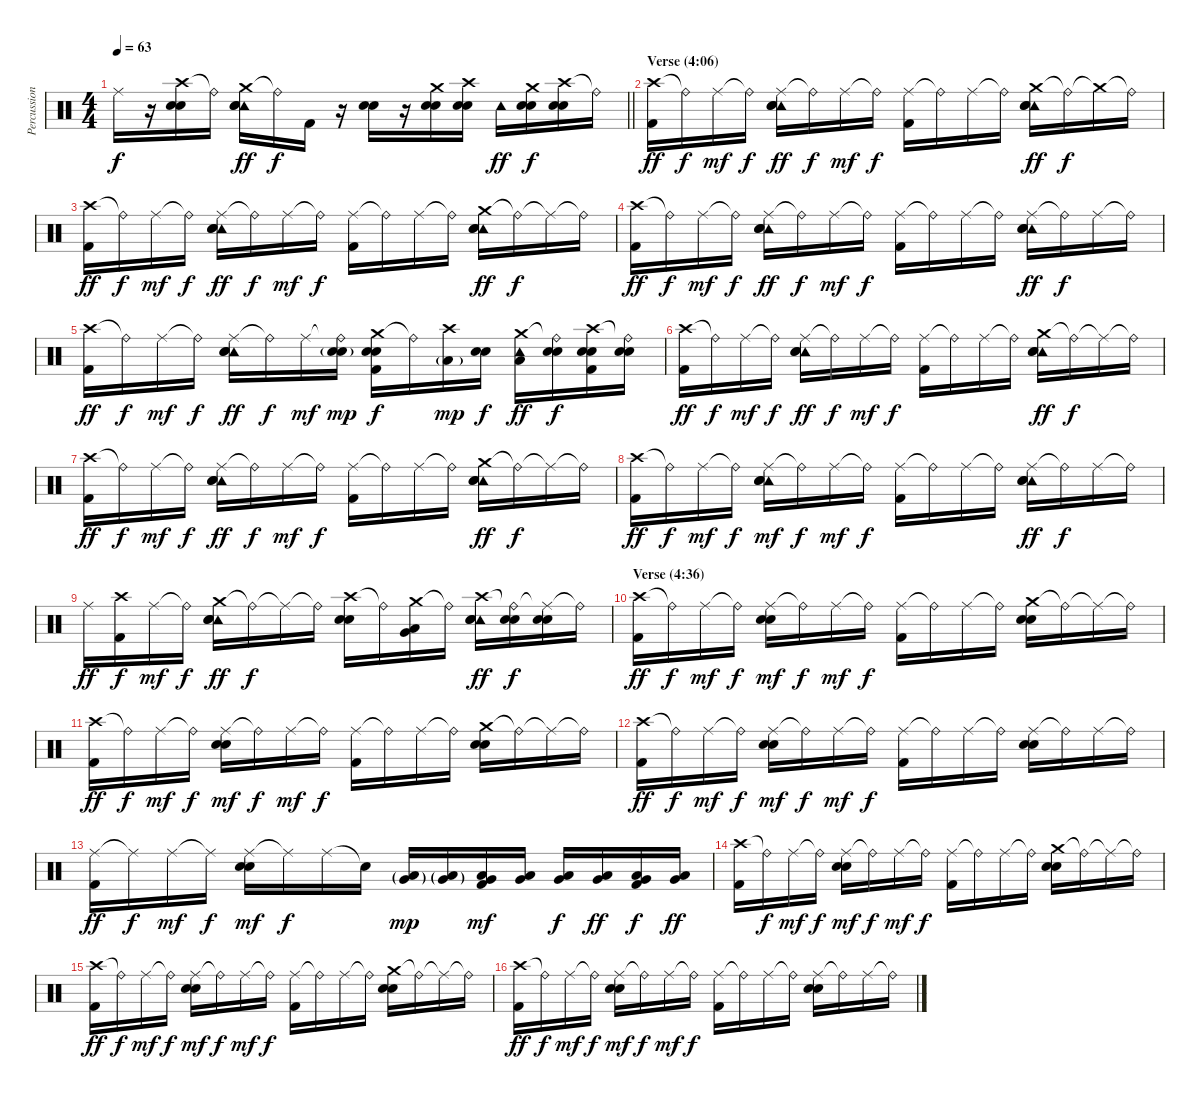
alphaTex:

\track ("Percussion" "Percussion") {instrument percussion}
\staff {score}
\articulation defaults
\ts (4 4)
\tempo 63
\clef neutral
\barLineRight lightlight
\ks c "Ride (middle)".16{dy f}
r.16 ("Crash high (hit)" "Snare (hit) 2" "Electric Snare (hit)").16 "Ride (bell)"{t}.16 ("Crash medium (hit)" "Tambourine (hit)" "Snare (hit) 2" "Electric Snare (hit)").16{dy ff} "Ride (bell)"{t}.16{dy f} "Kick (hit) 2".16 r.16 ("Snare (hit) 2" "Electric Snare (hit)").16 r.16 ("Crash medium (hit)" "Snare (hit) 2" "Electric Snare (hit)").16 ("Crash high (hit)" "Snare (hit) 2" "Electric Snare (hit)").16 "Tambourine (hit)".16{dy ff} ("Crash medium (hit)" "Snare (hit) 2" "Electric Snare (hit)").16{dy f} ("Crash high (hit)" "Snare (hit) 2" "Electric Snare (hit)").16 "Ride (bell)"{t}.16 |
\section ("" "Verse (4:06)")
("Crash high (hit)" "Kick (hit) 2").16{dy ff} "Ride (bell)"{t}.16{dy f} "Ride (middle)".16{dy mf} "Ride (bell)"{t}.16{dy f} ("Ride (middle)" "Tambourine (hit)" "Snare (hit) 2" "Electric Snare (hit)").16{dy ff} "Ride (bell)"{t}.16{dy f} "Ride (middle)".16{dy mf} "Ride (bell)"{t}.16{dy f} ("Ride (middle)" "Kick (hit) 2").16 "Ride (bell)"{t}.16 "Ride (middle)".16 "Ride (bell)"{t}.16 ("Crash medium (hit)" "Tambourine (hit)" "Snare (hit) 2" "Electric Snare (hit)").16{dy ff} "Ride (bell)"{t}.16{dy f} "Crash medium (hit)"{t}.16 "Ride (bell)"{t}.16 |
("Crash high (hit)" "Kick (hit) 2").16{dy ff} "Ride (bell)"{t}.16{dy f} "Ride (middle)".16{dy mf} "Ride (bell)"{t}.16{dy f} ("Ride (middle)" "Tambourine (hit)" "Snare (hit) 2" "Electric Snare (hit)").16{dy ff} "Ride (bell)"{t}.16{dy f} "Ride (middle)".16{dy mf} "Ride (bell)"{t}.16{dy f} ("Ride (middle)" "Kick (hit) 2").16 "Ride (bell)"{t}.16 "Ride (middle)".16 "Ride (bell)"{t}.16 ("Crash medium (hit)" "Tambourine (hit)" "Snare (hit) 2" "Electric Snare (hit)").16{dy ff} "Ride (bell)"{t}.16{dy f} "Ride (middle)"{t}.16 "Ride (bell)"{t}.16 |
("Crash high (hit)" "Kick (hit) 2").16{dy ff} "Ride (bell)"{t}.16{dy f} "Ride (middle)".16{dy mf} "Ride (bell)"{t}.16{dy f} ("Ride (middle)" "Tambourine (hit)" "Snare (hit) 2" "Electric Snare (hit)").16{dy ff} "Ride (bell)"{t}.16{dy f} "Ride (middle)".16{dy mf} "Ride (bell)"{t}.16{dy f} ("Ride (middle)" "Kick (hit) 2").16 "Ride (bell)"{t}.16 "Ride (middle)".16 "Ride (bell)"{t}.16 ("Ride (middle)" "Tambourine (hit)" "Snare (hit) 2" "Electric Snare (hit)").16{dy ff} "Ride (bell)"{t}.16{dy f} "Ride (middle)".16 "Ride (bell)"{t}.16 |
("Crash high (hit)" "Kick (hit) 2").16{dy ff} "Ride (bell)"{t}.16{dy f} "Ride (middle)".16{dy mf} "Ride (bell)"{t}.16{dy f} ("Ride (middle)" "Tambourine (hit)" "Snare (hit) 2" "Electric Snare (hit)").16{dy ff} "Ride (bell)"{t}.16{dy f} "Ride (middle)".16{dy mf} ("Ride (bell)"{t} "Snare (hit) 2"{g} "Electric Snare (hit)"{g}).16{dy mp} ("Crash medium (hit)" "Snare (hit) 2" "Electric Snare (hit)" "Kick (hit) 2").16{dy f} "Ride (bell)"{t}.16 ("Crash high (hit)" "Low Tom (hit)"{g}).16{dy mp} ("Snare (hit) 2" "Electric Snare (hit)").16{dy f} ("Crash medium (hit)" "Low Tom (hit)" "Tambourine (hit)").16{dy ff} ("Ride (bell)"{t} "Snare (hit) 2" "Electric Snare (hit)").16{dy f} ("Crash high (hit)" "Snare (hit) 2" "Electric Snare (hit)" "Kick (hit) 2").16 ("Ride (bell)"{t} "Snare (hit) 2" "Electric Snare (hit)").16 |
("Crash high (hit)" "Kick (hit) 2").16{dy ff} "Ride (bell)"{t}.16{dy f} "Ride (middle)".16{dy mf} "Ride (bell)"{t}.16{dy f} ("Ride (middle)" "Tambourine (hit)" "Snare (hit) 2" "Electric Snare (hit)").16{dy ff} "Ride (bell)"{t}.16{dy f} "Ride (middle)".16{dy mf} "Ride (bell)"{t}.16{dy f} ("Ride (middle)" "Kick (hit) 2").16 "Ride (bell)"{t}.16 "Ride (middle)".16 "Ride (bell)"{t}.16 ("Crash medium (hit)" "Tambourine (hit)" "Snare (hit) 2" "Electric Snare (hit)").16{dy ff} "Ride (bell)"{t}.16{dy f} "Ride (middle)"{t}.16 "Ride (bell)"{t}.16 |
("Crash high (hit)" "Kick (hit) 2").16{dy ff} "Ride (bell)"{t}.16{dy f} "Ride (middle)".16{dy mf} "Ride (bell)"{t}.16{dy f} ("Ride (middle)" "Tambourine (hit)" "Snare (hit) 2" "Electric Snare (hit)").16{dy ff} "Ride (bell)"{t}.16{dy f} "Ride (middle)".16{dy mf} "Ride (bell)"{t}.16{dy f} ("Ride (middle)" "Kick (hit) 2").16 "Ride (bell)"{t}.16 "Ride (middle)".16 "Ride (bell)"{t}.16 ("Crash medium (hit)" "Tambourine (hit)" "Snare (hit) 2" "Electric Snare (hit)").16{dy ff} "Ride (bell)"{t}.16{dy f} "Ride (middle)"{t}.16 "Ride (bell)"{t}.16 |
("Crash high (hit)" "Kick (hit) 2").16{dy ff} "Ride (bell)"{t}.16{dy f} "Ride (middle)".16{dy mf} "Ride (bell)"{t}.16{dy f} ("Ride (middle)" "Tambourine (hit)" "Snare (hit) 2" "Electric Snare (hit)").16{dy mf} "Ride (bell)"{t}.16{dy f} "Ride (middle)".16{dy mf} "Ride (bell)"{t}.16{dy f} ("Ride (middle)" "Kick (hit) 2").16 "Ride (bell)"{t}.16 "Ride (middle)".16 "Ride (bell)"{t}.16 ("Ride (middle)" "Tambourine (hit)" "Snare (hit) 2" "Electric Snare (hit)").16{dy ff} "Ride (bell)"{t}.16{dy f} "Ride (middle)".16 "Ride (bell)"{t}.16 |
"Ride (middle)".16{dy ff} ("Crash high (hit)" "Kick (hit) 2").16{dy f} "Ride (middle)".16{dy mf} "Ride (bell)"{t}.16{dy f} ("Crash medium (hit)" "Tambourine (hit)" "Snare (hit) 2" "Electric Snare (hit)").16{dy ff} "Ride (bell)"{t}.16{dy f} "Ride (middle)"{t}.16 "Ride (bell)"{t}.16 ("Crash high (hit)" "Snare (hit) 2" "Electric Snare (hit)").16 "Ride (bell)"{t}.16 ("Crash medium (hit)" "Very Low Tom (hit)" "Low Floor Tom (hit)").16 "Ride (bell)"{t}.16 ("Crash high (hit)" "Tambourine (hit)" "Snare (hit) 2" "Electric Snare (hit)").16{dy ff} ("Ride (bell)"{t} "Snare (hit) 2" "Electric Snare (hit)").16{dy f} ("Ride (middle)"{t} "Snare (hit) 2" "Electric Snare (hit)").16 "Ride (bell)"{t}.16 |
\section ("" "Verse (4:36)")
("Crash high (hit)" "Kick (hit) 2").16{dy ff} "Ride (bell)"{t}.16{dy f} "Ride (middle)".16{dy mf} "Ride (bell)"{t}.16{dy f} ("Ride (middle)" "Snare (hit) 2" "Electric Snare (hit)").16{dy mf} "Ride (bell)"{t}.16{dy f} "Ride (middle)".16{dy mf} "Ride (bell)"{t}.16{dy f} ("Ride (middle)" "Kick (hit) 2").16 "Ride (bell)"{t}.16 "Ride (middle)".16 "Ride (bell)"{t}.16 ("Crash medium (hit)" "Snare (hit) 2" "Electric Snare (hit)").16 "Ride (bell)"{t}.16 "Ride (middle)"{t}.16 "Ride (bell)"{t}.16 |
("Crash high (hit)" "Kick (hit) 2").16{dy ff} "Ride (bell)"{t}.16{dy f} "Ride (middle)".16{dy mf} "Ride (bell)"{t}.16{dy f} ("Ride (middle)" "Snare (hit) 2" "Electric Snare (hit)").16{dy mf} "Ride (bell)"{t}.16{dy f} "Ride (middle)".16{dy mf} "Ride (bell)"{t}.16{dy f} ("Ride (middle)" "Kick (hit) 2").16 "Ride (bell)"{t}.16 "Ride (middle)".16 "Ride (bell)"{t}.16 ("Crash medium (hit)" "Snare (hit) 2" "Electric Snare (hit)").16 "Ride (bell)"{t}.16 "Ride (middle)"{t}.16 "Ride (bell)"{t}.16 |
("Crash high (hit)" "Kick (hit) 2").16{dy ff} "Ride (bell)"{t}.16{dy f} "Ride (middle)".16{dy mf} "Ride (bell)"{t}.16{dy f} ("Ride (middle)" "Snare (hit) 2" "Electric Snare (hit)").16{dy mf} "Ride (bell)"{t}.16{dy f} "Ride (middle)".16{dy mf} "Ride (bell)"{t}.16{dy f} ("Ride (middle)" "Kick (hit) 2").16 "Ride (bell)"{t}.16 "Ride (middle)".16 "Ride (bell)"{t}.16 ("Ride (middle)" "Snare (hit) 2" "Electric Snare (hit)").16 "Ride (bell)"{t}.16 "Ride (middle)".16 "Ride (bell)"{t}.16 |
("Ride (middle)" "Kick (hit) 2").16{dy ff} "Ride (middle)"{t}.16{dy f} "Ride (middle)".16{dy mf} "Ride (middle)"{t}.16{dy f} ("Ride (middle)" "Snare (hit) 2" "Electric Snare (hit)").16{dy mf} "Ride (middle)"{t}.16{dy f} "Ride (middle)".16 "Snare (hit)"{t}.16 ("Low Floor Tom (hit)"{g} "Very Low Tom (hit)"{g}).16{dy mp} ("Low Floor Tom (hit)"{g} "Very Low Tom (hit)"{g}).16 ("Low Floor Tom (hit)" "Very Low Tom (hit)" "Kick (hit) 2").16{dy mf} ("Low Floor Tom (hit)" "Very Low Tom (hit)").16 ("Low Floor Tom (hit)" "Very Low Tom (hit)").16{dy f} ("Low Floor Tom (hit)" "Very Low Tom (hit)").16{dy ff} ("Low Floor Tom (hit)" "Very Low Tom (hit)" "Kick (hit) 2").16{dy f} ("Low Floor Tom (hit)" "Very Low Tom (hit)").16{dy ff} |
("Crash high (hit)" "Kick (hit) 2").16 "Ride (bell)"{t}.16{dy f} "Ride (middle)".16{dy mf} "Ride (bell)"{t}.16{dy f} ("Ride (middle)" "Snare (hit) 2" "Electric Snare (hit)").16{dy mf} "Ride (bell)"{t}.16{dy f} "Ride (middle)".16{dy mf} "Ride (bell)"{t}.16{dy f} ("Ride (middle)" "Kick (hit) 2").16 "Ride (bell)"{t}.16 "Ride (middle)".16 "Ride (bell)"{t}.16 ("Crash medium (hit)" "Snare (hit) 2" "Electric Snare (hit)").16 "Ride (bell)"{t}.16 "Ride (middle)"{t}.16 "Ride (bell)"{t}.16 |
("Crash high (hit)" "Kick (hit) 2").16{dy ff} "Ride (bell)"{t}.16{dy f} "Ride (middle)".16{dy mf} "Ride (bell)"{t}.16{dy f} ("Ride (middle)" "Snare (hit) 2" "Electric Snare (hit)").16{dy mf} "Ride (bell)"{t}.16{dy f} "Ride (middle)".16{dy mf} "Ride (bell)"{t}.16{dy f} ("Ride (middle)" "Kick (hit) 2").16 "Ride (bell)"{t}.16 "Ride (middle)".16 "Ride (bell)"{t}.16 ("Crash medium (hit)" "Snare (hit) 2" "Electric Snare (hit)").16 "Ride (bell)"{t}.16 "Ride (middle)"{t}.16 "Ride (bell)"{t}.16 |
("Crash high (hit)" "Kick (hit) 2").16{dy ff} "Ride (bell)"{t}.16{dy f} "Ride (middle)".16{dy mf} "Ride (bell)"{t}.16{dy f} ("Ride (middle)" "Snare (hit) 2" "Electric Snare (hit)").16{dy mf} "Ride (bell)"{t}.16{dy f} "Ride (middle)".16{dy mf} "Ride (bell)"{t}.16{dy f} ("Ride (middle)" "Kick (hit) 2").16 "Ride (bell)"{t}.16 "Ride (middle)".16 "Ride (bell)"{t}.16 ("Ride (middle)" "Snare (hit) 2" "Electric Snare (hit)").16 "Ride (bell)"{t}.16 "Ride (middle)".16 "Ride (bell)"{t}.16
